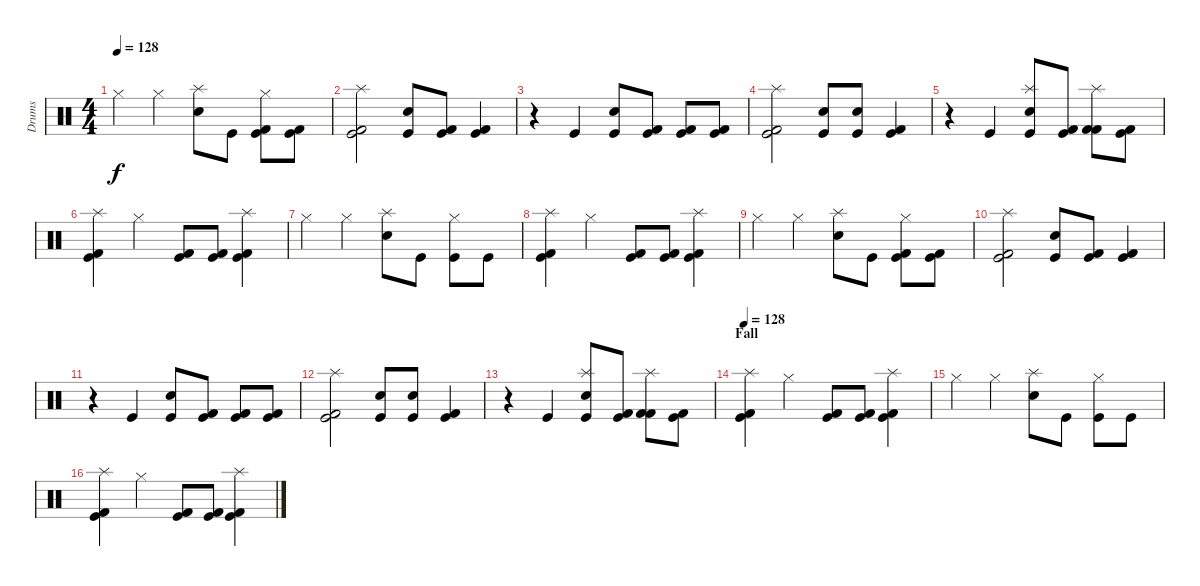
\track ("Drums" "Drums") {instrument percussion}
\staff {score}
\articulation defaults
\ts (4 4)
\tempo 128
\clef neutral
\ks c "Hi-Hat (closed)".4{dy f} "Hi-Hat (closed)".4
("Electric Snare (hit)" "Splash (hit)").8 "Kick (hit)".8 ("Kick (hit) 2" "Hi-Hat (closed)" "Kick (hit)").8 ("Kick (hit) 2" "Kick (hit)").8 |
("Kick (hit) 2" "Kick (hit)" "Splash (hit)").2 ("Electric Snare (hit)" "Kick (hit)").8 ("Kick (hit) 2" "Kick (hit)").8 ("Kick (hit) 2" "Kick (hit)").4 |
r.4 "Kick (hit)".4 ("Electric Snare (hit)" "Kick (hit)").8 ("Kick (hit) 2" "Kick (hit)").8 ("Kick (hit) 2" "Kick (hit)").8 ("Kick (hit) 2" "Kick (hit)").8 |
("Kick (hit) 2" "Kick (hit)" "Splash (hit)").2 ("Electric Snare (hit)" "Kick (hit)").8 ("Electric Snare (hit)" "Kick (hit)").8 ("Kick (hit) 2" "Kick (hit)").4 |
r.4 "Kick (hit)".4 ("Electric Snare (hit)" "Kick (hit)" "Splash (hit)").8 ("Kick (hit) 2" "Kick (hit)").8 ("Kick (hit) 2" "Kick (hit) 2" "Splash (hit)").8 ("Kick (hit) 2" "Kick (hit)").8 |
("Kick (hit) 2" "Kick (hit)" "Splash (hit)").4 "Hi-Hat (closed)".4 ("Kick (hit) 2" "Kick (hit)").8 ("Kick (hit) 2" "Kick (hit)").8 ("Kick (hit) 2" "Kick (hit)" "Splash (hit)").4 |
"Hi-Hat (closed)".4 "Hi-Hat (closed)".4 ("Electric Snare (hit)" "Splash (hit)").8 "Kick (hit)".8 ("Kick (hit)" "Hi-Hat (closed)").8 "Kick (hit)".8 |
("Kick (hit) 2" "Kick (hit)" "Splash (hit)").4 "Hi-Hat (closed)".4 ("Kick (hit) 2" "Kick (hit)").8 ("Kick (hit) 2" "Kick (hit)").8 ("Kick (hit) 2" "Kick (hit)" "Splash (hit)").4 |
"Hi-Hat (closed)".4 "Hi-Hat (closed)".4 ("Electric Snare (hit)" "Splash (hit)").8 "Kick (hit)".8 ("Kick (hit) 2" "Hi-Hat (closed)" "Kick (hit)").8 ("Kick (hit) 2" "Kick (hit)").8 |
("Kick (hit) 2" "Kick (hit)" "Splash (hit)").2 ("Electric Snare (hit)" "Kick (hit)").8 ("Kick (hit) 2" "Kick (hit)").8 ("Kick (hit) 2" "Kick (hit)").4 |
r.4 "Kick (hit)".4 ("Electric Snare (hit)" "Kick (hit)").8 ("Kick (hit) 2" "Kick (hit)").8 ("Kick (hit) 2" "Kick (hit)").8 ("Kick (hit) 2" "Kick (hit)").8 |
("Kick (hit) 2" "Kick (hit)" "Splash (hit)").2 ("Electric Snare (hit)" "Kick (hit)").8 ("Electric Snare (hit)" "Kick (hit)").8 ("Kick (hit) 2" "Kick (hit)").4 |
r.4 "Kick (hit)".4 ("Electric Snare (hit)" "Kick (hit)" "Splash (hit)").8 ("Kick (hit) 2" "Kick (hit)").8 ("Kick (hit) 2" "Kick (hit) 2" "Splash (hit)").8 ("Kick (hit) 2" "Kick (hit)").8 |
\section ("" "Fall")
\tempo 128
("Kick (hit) 2" "Kick (hit)" "Splash (hit)").4 "Hi-Hat (closed)".4 ("Kick (hit) 2" "Kick (hit)").8 ("Kick (hit) 2" "Kick (hit)").8 ("Kick (hit) 2" "Kick (hit)" "Splash (hit)").4 |
"Hi-Hat (closed)".4 "Hi-Hat (closed)".4 ("Electric Snare (hit)" "Splash (hit)").8 "Kick (hit)".8 ("Kick (hit)" "Hi-Hat (closed)").8 "Kick (hit)".8 |
("Kick (hit) 2" "Kick (hit)" "Splash (hit)").4 "Hi-Hat (closed)".4 ("Kick (hit) 2" "Kick (hit)").8 ("Kick (hit) 2" "Kick (hit)").8 ("Kick (hit) 2" "Kick (hit)" "Splash (hit)").4
